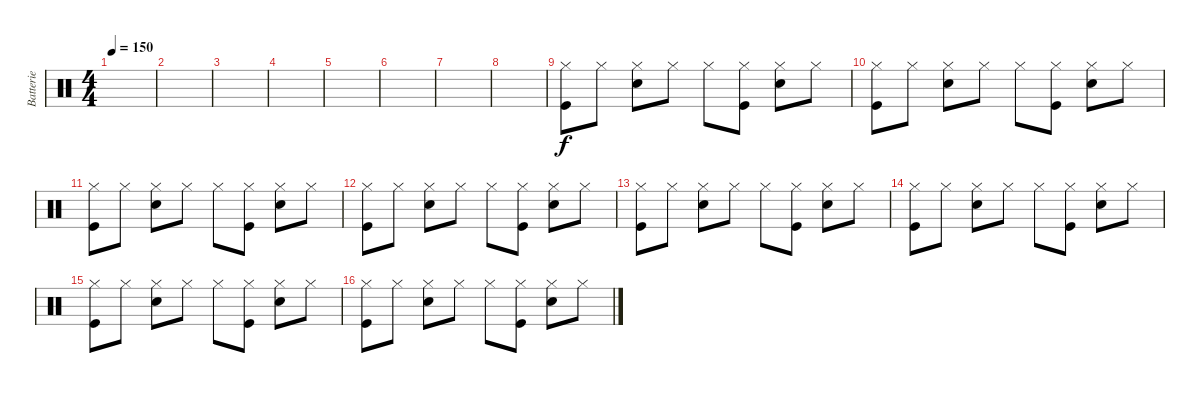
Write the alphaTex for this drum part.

\track ("Batterie" "Batterie") {instrument percussion}
\staff {score}
\articulation defaults
\ts (4 4)
\tempo 150
\clef neutral
\ks c
|
|
|
|
|
|
|
|
("Hi-Hat (closed)" "Kick (hit)").8 "Hi-Hat (closed)".8 ("Hi-Hat (closed)" "Snare (hit) 2").8 "Hi-Hat (closed)".8 "Hi-Hat (closed)".8 ("Hi-Hat (closed)" "Kick (hit)").8 ("Hi-Hat (closed)" "Snare (hit) 2").8 "Hi-Hat (closed)".8 |
("Hi-Hat (closed)" "Kick (hit)").8 "Hi-Hat (closed)".8 ("Hi-Hat (closed)" "Snare (hit) 2").8 "Hi-Hat (closed)".8 "Hi-Hat (closed)".8 ("Hi-Hat (closed)" "Kick (hit)").8 ("Hi-Hat (closed)" "Snare (hit) 2").8 "Hi-Hat (closed)".8 |
("Hi-Hat (closed)" "Kick (hit)").8 "Hi-Hat (closed)".8 ("Hi-Hat (closed)" "Snare (hit) 2").8 "Hi-Hat (closed)".8 "Hi-Hat (closed)".8 ("Hi-Hat (closed)" "Kick (hit)").8 ("Hi-Hat (closed)" "Snare (hit) 2").8 "Hi-Hat (closed)".8 |
("Hi-Hat (closed)" "Kick (hit)").8 "Hi-Hat (closed)".8 ("Hi-Hat (closed)" "Snare (hit) 2").8 "Hi-Hat (closed)".8 "Hi-Hat (closed)".8 ("Hi-Hat (closed)" "Kick (hit)").8 ("Hi-Hat (closed)" "Snare (hit) 2").8 "Hi-Hat (closed)".8 |
("Hi-Hat (closed)" "Kick (hit)").8 "Hi-Hat (closed)".8 ("Hi-Hat (closed)" "Snare (hit) 2").8 "Hi-Hat (closed)".8 "Hi-Hat (closed)".8 ("Hi-Hat (closed)" "Kick (hit)").8 ("Hi-Hat (closed)" "Snare (hit) 2").8 "Hi-Hat (closed)".8 |
("Hi-Hat (closed)" "Kick (hit)").8 "Hi-Hat (closed)".8 ("Hi-Hat (closed)" "Snare (hit) 2").8 "Hi-Hat (closed)".8 "Hi-Hat (closed)".8 ("Hi-Hat (closed)" "Kick (hit)").8 ("Hi-Hat (closed)" "Snare (hit) 2").8 "Hi-Hat (closed)".8 |
("Hi-Hat (closed)" "Kick (hit)").8 "Hi-Hat (closed)".8 ("Hi-Hat (closed)" "Snare (hit) 2").8 "Hi-Hat (closed)".8 "Hi-Hat (closed)".8 ("Hi-Hat (closed)" "Kick (hit)").8 ("Hi-Hat (closed)" "Snare (hit) 2").8 "Hi-Hat (closed)".8 |
("Hi-Hat (closed)" "Kick (hit)").8 "Hi-Hat (closed)".8 ("Hi-Hat (closed)" "Snare (hit) 2").8 "Hi-Hat (closed)".8 "Hi-Hat (closed)".8 ("Hi-Hat (closed)" "Kick (hit)").8 ("Hi-Hat (closed)" "Snare (hit) 2").8 "Hi-Hat (closed)".8
